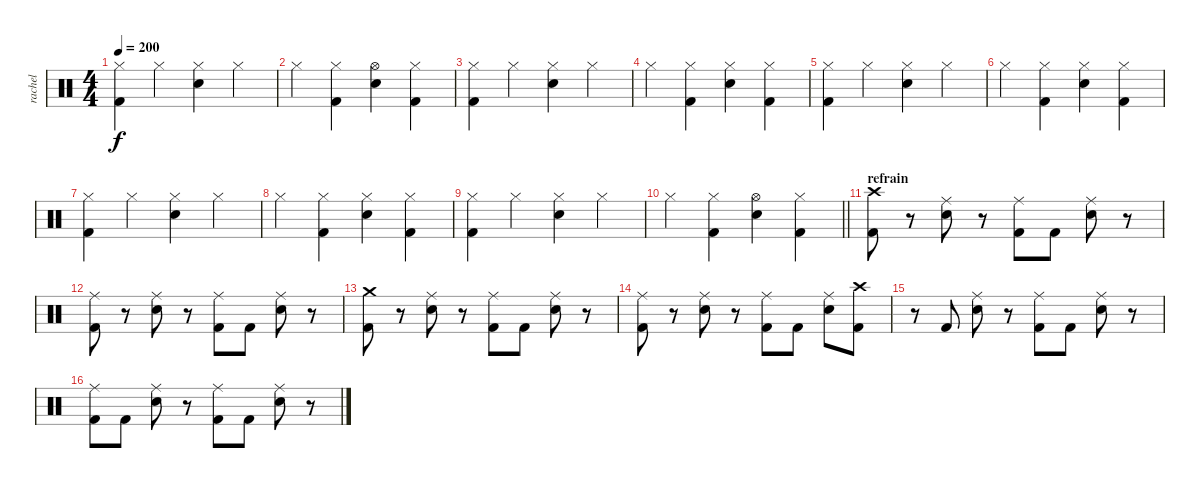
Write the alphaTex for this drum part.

\track ("rachel" "rachel") {instrument percussion}
\staff {score}
\articulation defaults
\ts (4 4)
\tempo 200
\clef neutral
\ks c
("Hi-Hat (closed)" "Kick (hit) 2").4{dy f} "Hi-Hat (closed)".4 ("Hi-Hat (closed)" "Electric Snare (hit)").4 "Hi-Hat (closed)".4 |
"Hi-Hat (closed)".4 ("Hi-Hat (closed)" "Kick (hit) 2").4 ("Hi-Hat (open)" "Electric Snare (hit)").4 ("Hi-Hat (closed)" "Kick (hit) 2").4 |
("Hi-Hat (closed)" "Kick (hit) 2").4 "Hi-Hat (closed)".4 ("Hi-Hat (closed)" "Electric Snare (hit)").4 "Hi-Hat (closed)".4 |
"Hi-Hat (closed)".4 ("Hi-Hat (closed)" "Kick (hit) 2").4 ("Hi-Hat (closed)" "Electric Snare (hit)").4 ("Hi-Hat (closed)" "Kick (hit) 2").4 |
("Hi-Hat (closed)" "Kick (hit) 2").4 "Hi-Hat (closed)".4 ("Hi-Hat (closed)" "Electric Snare (hit)").4 "Hi-Hat (closed)".4 |
"Hi-Hat (closed)".4 ("Hi-Hat (closed)" "Kick (hit) 2").4 ("Hi-Hat (closed)" "Electric Snare (hit)").4 ("Hi-Hat (closed)" "Kick (hit) 2").4 |
("Hi-Hat (closed)" "Kick (hit) 2").4 "Hi-Hat (closed)".4 ("Hi-Hat (closed)" "Electric Snare (hit)").4 "Hi-Hat (closed)".4 |
"Hi-Hat (closed)".4 ("Hi-Hat (closed)" "Kick (hit) 2").4 ("Hi-Hat (closed)" "Electric Snare (hit)").4 ("Hi-Hat (closed)" "Kick (hit) 2").4 |
("Hi-Hat (closed)" "Kick (hit) 2").4 "Hi-Hat (closed)".4 ("Hi-Hat (closed)" "Electric Snare (hit)").4 "Hi-Hat (closed)".4 |
\barLineRight lightlight "Hi-Hat (closed)".4
("Hi-Hat (closed)" "Kick (hit) 2").4 ("Hi-Hat (open)" "Electric Snare (hit)").4 ("Hi-Hat (closed)" "Kick (hit) 2").4 |
\section ("" "refrain")
("Crash high (hit)" "Kick (hit) 2").8 r.8 ("Ride (middle)" "Electric Snare (hit)").8 r.8 ("Ride (middle)" "Kick (hit) 2").8 "Kick (hit) 2".8 ("Ride (middle)" "Electric Snare (hit)").8 r.8 |
("Ride (middle)" "Kick (hit) 2").8 r.8 ("Ride (middle)" "Electric Snare (hit)").8 r.8 ("Ride (middle)" "Kick (hit) 2").8 "Kick (hit) 2".8 ("Ride (middle)" "Electric Snare (hit)").8 r.8 |
("Crash medium (hit)" "Kick (hit) 2").8 r.8 ("Ride (middle)" "Electric Snare (hit)").8 r.8 ("Ride (middle)" "Kick (hit) 2").8 "Kick (hit) 2".8 ("Ride (middle)" "Electric Snare (hit)").8 r.8 |
("Ride (middle)" "Kick (hit) 2").8 r.8 ("Ride (middle)" "Electric Snare (hit)").8 r.8 ("Ride (middle)" "Kick (hit) 2").8 "Kick (hit) 2".8 ("Ride (middle)" "Electric Snare (hit)").8 ("Crash high (hit)" "Kick (hit) 2").8 |
r.8 "Kick (hit) 2".8 ("Ride (middle)" "Electric Snare (hit)").8 r.8 ("Ride (middle)" "Kick (hit) 2").8 "Kick (hit) 2".8 ("Ride (middle)" "Electric Snare (hit)").8 r.8 |
("Ride (middle)" "Kick (hit) 2").8 "Kick (hit) 2".8 ("Ride (middle)" "Electric Snare (hit)").8 r.8 ("Ride (middle)" "Kick (hit) 2").8 "Kick (hit) 2".8 ("Ride (middle)" "Electric Snare (hit)").8 r.8
